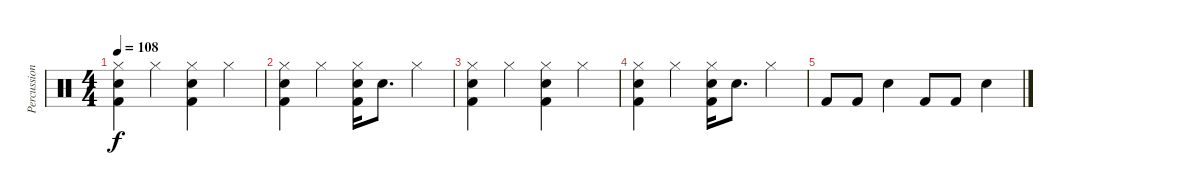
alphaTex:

\track ("Percussion" "Percussion") {instrument percussion}
\staff {score}
\articulation defaults
\ts (4 4)
\tempo 108
\clef neutral
\ks c
("Hi-Hat (closed)" "Snare (hit) 2" "Kick (hit) 2").4{dy f} "Hi-Hat (closed)".4 ("Hi-Hat (closed)" "Snare (hit) 2" "Kick (hit) 2").4 "Hi-Hat (closed)".4 |
("Hi-Hat (closed)" "Snare (hit) 2" "Kick (hit) 2").4 "Hi-Hat (closed)".4 ("Hi-Hat (closed)" "Snare (hit) 2" "Kick (hit) 2").16 "Snare (hit) 2".8{d} "Hi-Hat (closed)".4 |
("Hi-Hat (closed)" "Snare (hit) 2" "Kick (hit) 2").4 "Hi-Hat (closed)".4 ("Hi-Hat (closed)" "Snare (hit) 2" "Kick (hit) 2").4 "Hi-Hat (closed)".4 |
("Hi-Hat (closed)" "Snare (hit) 2" "Kick (hit) 2").4 "Hi-Hat (closed)".4 ("Hi-Hat (closed)" "Snare (hit) 2" "Kick (hit) 2").16 "Snare (hit) 2".8{d} "Hi-Hat (closed)".4 |
"Kick (hit) 2".8 "Kick (hit) 2".8 "Snare (hit) 2".4 "Kick (hit) 2".8 "Kick (hit) 2".8 "Snare (hit) 2".4
